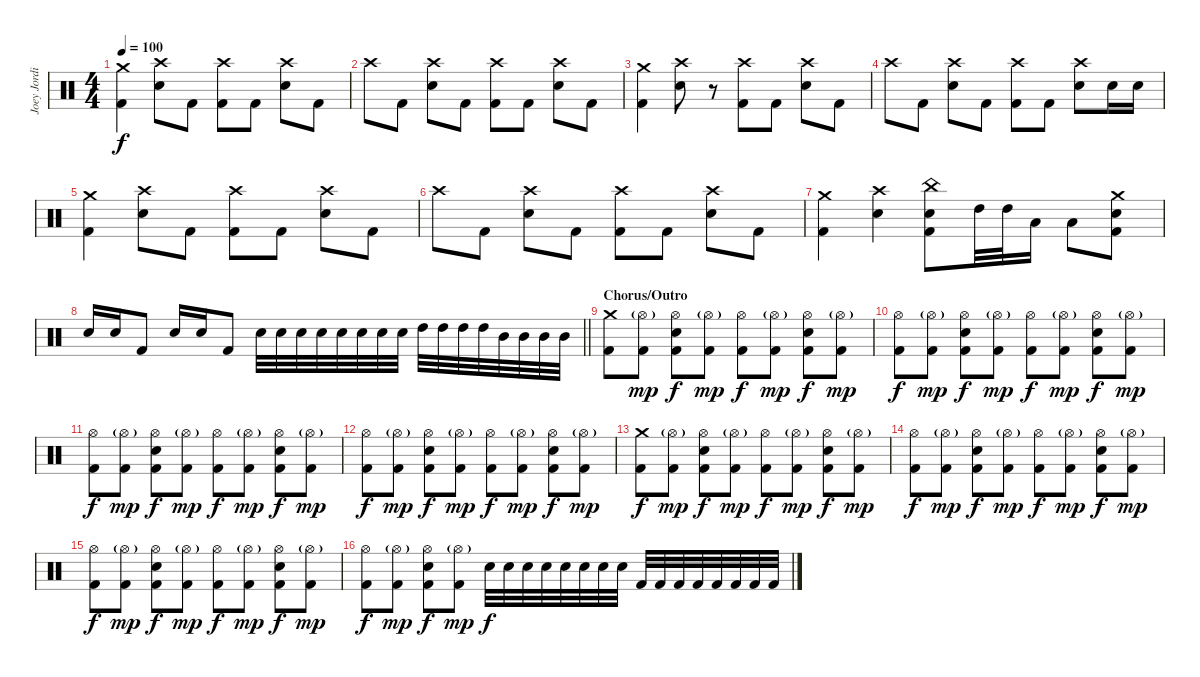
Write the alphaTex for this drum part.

\track ("Joey Jordison" "Joey Jordi") {instrument percussion}
\staff {score}
\articulation defaults
\ts (4 4)
\tempo 100
\clef neutral
\ks c
("Crash medium (hit)" "Kick (hit) 2").4{dy f} ("Crash high (hit)" "Electric Snare (hit)").8 "Kick (hit) 2".8 ("Crash high (hit)" "Kick (hit) 2").8 "Kick (hit) 2".8 ("Crash high (hit)" "Electric Snare (hit)").8 "Kick (hit) 2".8 |
"Crash high (hit)".8 "Kick (hit) 2".8 ("Crash high (hit)" "Electric Snare (hit)").8 "Kick (hit) 2".8 ("Crash high (hit)" "Kick (hit) 2").8 "Kick (hit) 2".8 ("Crash high (hit)" "Electric Snare (hit)").8 "Kick (hit) 2".8 |
("Crash medium (hit)" "Kick (hit) 2").4 ("Crash high (hit)" "Electric Snare (hit)").8 r.8 ("Crash high (hit)" "Kick (hit) 2").8 "Kick (hit) 2".8 ("Crash high (hit)" "Electric Snare (hit)").8 "Kick (hit) 2".8 |
"Crash high (hit)".8 "Kick (hit) 2".8 ("Crash high (hit)" "Electric Snare (hit)").8 "Kick (hit) 2".8 ("Crash high (hit)" "Kick (hit) 2").8 "Kick (hit) 2".8 ("Crash high (hit)" "Electric Snare (hit)").8 "Electric Snare (hit)".16 "Electric Snare (hit)".16 |
("Crash medium (hit)" "Kick (hit) 2").4 ("Crash high (hit)" "Electric Snare (hit)").8 "Kick (hit) 2".8 ("Crash high (hit)" "Kick (hit) 2").8 "Kick (hit) 2".8 ("Crash high (hit)" "Electric Snare (hit)").8 "Kick (hit) 2".8 |
"Crash high (hit)".8 "Kick (hit) 2".8 ("Crash high (hit)" "Electric Snare (hit)").8 "Kick (hit) 2".8 ("Crash high (hit)" "Kick (hit) 2").8 "Kick (hit) 2".8 ("Crash high (hit)" "Electric Snare (hit)").8 "Kick (hit) 2".8 |
("Crash medium (hit)" "Kick (hit) 2").4 ("Crash high (hit)" "Electric Snare (hit)").4 ("China (hit)" "Electric Snare (hit)" "Kick (hit) 2").8 "High Tom (hit)".32 "High Tom (hit)".32 "Low Tom (hit)".16 "Low Tom (hit)".8 ("Crash medium (hit)" "Electric Snare (hit)" "Kick (hit) 2").8 |
\barLineRight lightlight "Electric Snare (hit)".16 "Electric Snare (hit)".16 "Kick (hit) 2".8 "Electric Snare (hit)".16 "Electric Snare (hit)".16 "Kick (hit) 2".8 "Electric Snare (hit)".32 "Electric Snare (hit)".32 "Electric Snare (hit)".32 "Electric Snare (hit)".32 "Electric Snare (hit)".32 "Electric Snare (hit)".32 "Electric Snare (hit)".32 "Electric Snare (hit)".32 "High Tom (hit)".32 "High Tom (hit)".32 "High Tom (hit)".32 "High Tom (hit)".32 "Mid Tom (hit)".32 "Mid Tom (hit)".32 "Mid Tom (hit)".32 "Mid Tom (hit)".32
|
\section ("" "Chorus/Outro")
("Crash medium (hit)" "Kick (hit) 2").8 ("Hi-Hat (open)"{g} "Kick (hit) 2").8{dy mp} ("Hi-Hat (open)" "Electric Snare (hit)" "Kick (hit) 2").8{dy f} ("Hi-Hat (open)"{g} "Kick (hit) 2").8{dy mp} ("Hi-Hat (open)" "Kick (hit) 2").8{dy f} ("Hi-Hat (open)"{g} "Kick (hit) 2").8{dy mp} ("Hi-Hat (open)" "Electric Snare (hit)" "Kick (hit) 2").8{dy f} ("Hi-Hat (open)"{g} "Kick (hit) 2").8{dy mp} |
("Hi-Hat (open)" "Kick (hit) 2").8{dy f} ("Hi-Hat (open)"{g} "Kick (hit) 2").8{dy mp} ("Hi-Hat (open)" "Electric Snare (hit)" "Kick (hit) 2").8{dy f} ("Hi-Hat (open)"{g} "Kick (hit) 2").8{dy mp} ("Hi-Hat (open)" "Kick (hit) 2").8{dy f} ("Hi-Hat (open)"{g} "Kick (hit) 2").8{dy mp} ("Hi-Hat (open)" "Electric Snare (hit)" "Kick (hit) 2").8{dy f} ("Hi-Hat (open)"{g} "Kick (hit) 2").8{dy mp} |
("Hi-Hat (open)" "Kick (hit) 2").8{dy f} ("Hi-Hat (open)"{g} "Kick (hit) 2").8{dy mp} ("Hi-Hat (open)" "Electric Snare (hit)" "Kick (hit) 2").8{dy f} ("Hi-Hat (open)"{g} "Kick (hit) 2").8{dy mp} ("Hi-Hat (open)" "Kick (hit) 2").8{dy f} ("Hi-Hat (open)"{g} "Kick (hit) 2").8{dy mp} ("Hi-Hat (open)" "Electric Snare (hit)" "Kick (hit) 2").8{dy f} ("Hi-Hat (open)"{g} "Kick (hit) 2").8{dy mp} |
("Hi-Hat (open)" "Kick (hit) 2").8{dy f} ("Hi-Hat (open)"{g} "Kick (hit) 2").8{dy mp} ("Hi-Hat (open)" "Electric Snare (hit)" "Kick (hit) 2").8{dy f} ("Hi-Hat (open)"{g} "Kick (hit) 2").8{dy mp} ("Hi-Hat (open)" "Kick (hit) 2").8{dy f} ("Hi-Hat (open)"{g} "Kick (hit) 2").8{dy mp} ("Hi-Hat (open)" "Electric Snare (hit)" "Kick (hit) 2").8{dy f} ("Hi-Hat (open)"{g} "Kick (hit) 2").8{dy mp} |
("Crash medium (hit)" "Kick (hit) 2").8{dy f} ("Hi-Hat (open)"{g} "Kick (hit) 2").8{dy mp} ("Hi-Hat (open)" "Electric Snare (hit)" "Kick (hit) 2").8{dy f} ("Hi-Hat (open)"{g} "Kick (hit) 2").8{dy mp} ("Hi-Hat (open)" "Kick (hit) 2").8{dy f} ("Hi-Hat (open)"{g} "Kick (hit) 2").8{dy mp} ("Hi-Hat (open)" "Electric Snare (hit)" "Kick (hit) 2").8{dy f} ("Hi-Hat (open)"{g} "Kick (hit) 2").8{dy mp} |
("Hi-Hat (open)" "Kick (hit) 2").8{dy f} ("Hi-Hat (open)"{g} "Kick (hit) 2").8{dy mp} ("Hi-Hat (open)" "Electric Snare (hit)" "Kick (hit) 2").8{dy f} ("Hi-Hat (open)"{g} "Kick (hit) 2").8{dy mp} ("Hi-Hat (open)" "Kick (hit) 2").8{dy f} ("Hi-Hat (open)"{g} "Kick (hit) 2").8{dy mp} ("Hi-Hat (open)" "Electric Snare (hit)" "Kick (hit) 2").8{dy f} ("Hi-Hat (open)"{g} "Kick (hit) 2").8{dy mp} |
("Hi-Hat (open)" "Kick (hit) 2").8{dy f} ("Hi-Hat (open)"{g} "Kick (hit) 2").8{dy mp} ("Hi-Hat (open)" "Electric Snare (hit)" "Kick (hit) 2").8{dy f} ("Hi-Hat (open)"{g} "Kick (hit) 2").8{dy mp} ("Hi-Hat (open)" "Kick (hit) 2").8{dy f} ("Hi-Hat (open)"{g} "Kick (hit) 2").8{dy mp} ("Hi-Hat (open)" "Electric Snare (hit)" "Kick (hit) 2").8{dy f} ("Hi-Hat (open)"{g} "Kick (hit) 2").8{dy mp} |
("Hi-Hat (open)" "Kick (hit) 2").8{dy f} ("Hi-Hat (open)"{g} "Kick (hit) 2").8{dy mp} ("Hi-Hat (open)" "Electric Snare (hit)" "Kick (hit) 2").8{dy f} ("Hi-Hat (open)"{g} "Kick (hit) 2").8{dy mp} "Electric Snare (hit)".32{dy f} "Electric Snare (hit)".32 "Electric Snare (hit)".32 "Electric Snare (hit)".32 "Electric Snare (hit)".32 "Electric Snare (hit)".32 "Electric Snare (hit)".32 "Electric Snare (hit)".32 "Kick (hit) 2".32 "Kick (hit) 2".32 "Kick (hit) 2".32 "Kick (hit) 2".32 "Kick (hit) 2".32 "Kick (hit) 2".32 "Kick (hit) 2".32 "Kick (hit) 2".32
